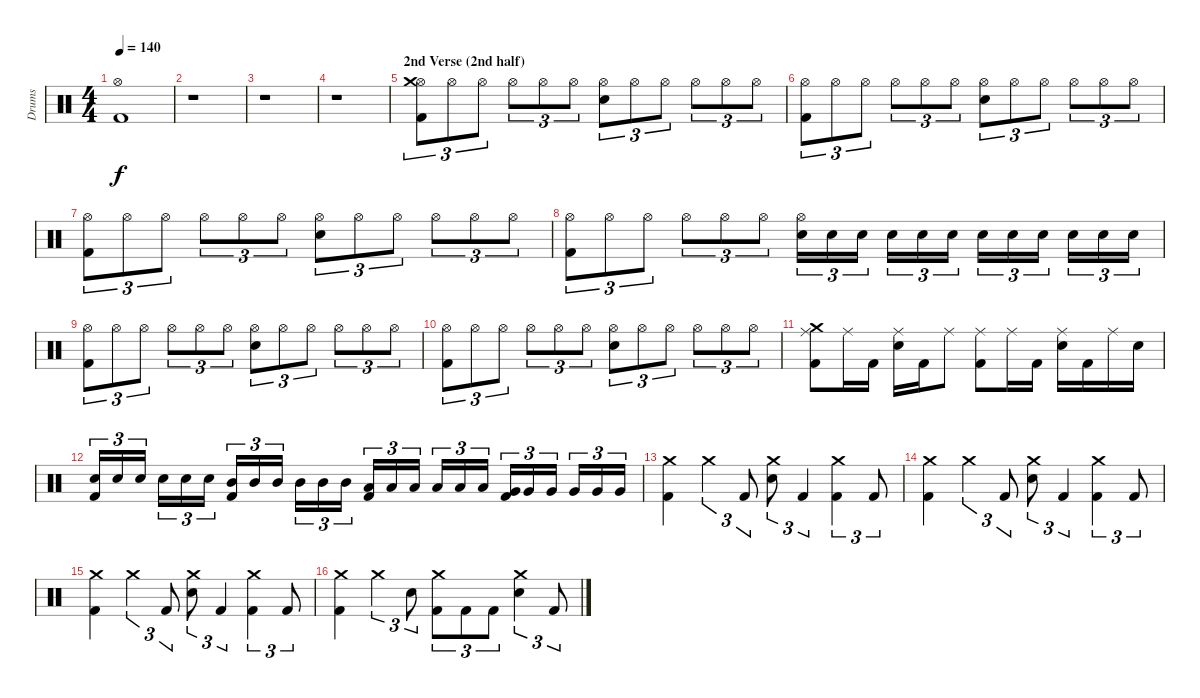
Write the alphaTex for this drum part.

\track ("Drums" "Drums") {instrument percussion}
\staff {score}
\articulation defaults
\ts (4 4)
\tempo 140
\clef neutral
\ks c
("Kick (hit) 2" "Hi-Hat (open)").1{dy f} |
r.1 |
r.1 |
r.1 |
\section ("" "2nd Verse (2nd half)")
("Kick (hit) 2" "Hi-Hat (open)" "Crash medium (hit)").8{tu (3 2)} "Hi-Hat (open)".8{tu (3 2)} "Hi-Hat (open)".8{tu (3 2)} "Hi-Hat (open)".8{tu (3 2)} "Hi-Hat (open)".8{tu (3 2)} "Hi-Hat (open)".8{tu (3 2)} ("Electric Snare (hit)" "Hi-Hat (open)").8{tu (3 2)} "Hi-Hat (open)".8{tu (3 2)} "Hi-Hat (open)".8{tu (3 2)} "Hi-Hat (open)".8{tu (3 2)} "Hi-Hat (open)".8{tu (3 2)} "Hi-Hat (open)".8{tu (3 2)} |
("Kick (hit) 2" "Hi-Hat (open)").8{tu (3 2)} "Hi-Hat (open)".8{tu (3 2)} "Hi-Hat (open)".8{tu (3 2)} "Hi-Hat (open)".8{tu (3 2)} "Hi-Hat (open)".8{tu (3 2)} "Hi-Hat (open)".8{tu (3 2)} ("Electric Snare (hit)" "Hi-Hat (open)").8{tu (3 2)} "Hi-Hat (open)".8{tu (3 2)} "Hi-Hat (open)".8{tu (3 2)} "Hi-Hat (open)".8{tu (3 2)} "Hi-Hat (open)".8{tu (3 2)} "Hi-Hat (open)".8{tu (3 2)} |
("Kick (hit) 2" "Hi-Hat (open)").8{tu (3 2)} "Hi-Hat (open)".8{tu (3 2)} "Hi-Hat (open)".8{tu (3 2)} "Hi-Hat (open)".8{tu (3 2)} "Hi-Hat (open)".8{tu (3 2)} "Hi-Hat (open)".8{tu (3 2)} ("Electric Snare (hit)" "Hi-Hat (open)").8{tu (3 2)} "Hi-Hat (open)".8{tu (3 2)} "Hi-Hat (open)".8{tu (3 2)} "Hi-Hat (open)".8{tu (3 2)} "Hi-Hat (open)".8{tu (3 2)} "Hi-Hat (open)".8{tu (3 2)} |
("Kick (hit) 2" "Hi-Hat (open)").8{tu (3 2)} "Hi-Hat (open)".8{tu (3 2)} "Hi-Hat (open)".8{tu (3 2)} "Hi-Hat (open)".8{tu (3 2)} "Hi-Hat (open)".8{tu (3 2)} "Hi-Hat (open)".8{tu (3 2)} ("Snare (hit) 2" "Hi-Hat (open)").16{tu (3 2)} "Snare (hit) 2".16{tu (3 2)} "Snare (hit) 2".16{tu (3 2)} "Snare (hit) 2".16{tu (3 2)} "Snare (hit) 2".16{tu (3 2)} "Snare (hit) 2".16{tu (3 2)} "Snare (hit) 2".16{tu (3 2)} "Snare (hit) 2".16{tu (3 2)} "Snare (hit) 2".16{tu (3 2)} "Snare (hit) 2".16{tu (3 2)} "Snare (hit) 2".16{tu (3 2)} "Snare (hit) 2".16{tu (3 2)} |
("Kick (hit) 2" "Hi-Hat (open)").8{tu (3 2)} "Hi-Hat (open)".8{tu (3 2)} "Hi-Hat (open)".8{tu (3 2)} "Hi-Hat (open)".8{tu (3 2)} "Hi-Hat (open)".8{tu (3 2)} "Hi-Hat (open)".8{tu (3 2)} ("Electric Snare (hit)" "Hi-Hat (open)").8{tu (3 2)} "Hi-Hat (open)".8{tu (3 2)} "Hi-Hat (open)".8{tu (3 2)} "Hi-Hat (open)".8{tu (3 2)} "Hi-Hat (open)".8{tu (3 2)} "Hi-Hat (open)".8{tu (3 2)} |
("Kick (hit) 2" "Hi-Hat (open)").8{tu (3 2)} "Hi-Hat (open)".8{tu (3 2)} "Hi-Hat (open)".8{tu (3 2)} "Hi-Hat (open)".8{tu (3 2)} "Hi-Hat (open)".8{tu (3 2)} "Hi-Hat (open)".8{tu (3 2)} ("Electric Snare (hit)" "Hi-Hat (open)").8{tu (3 2)} "Hi-Hat (open)".8{tu (3 2)} "Hi-Hat (open)".8{tu (3 2)} "Hi-Hat (open)".8{tu (3 2)} "Hi-Hat (open)".8{tu (3 2)} "Hi-Hat (open)".8{tu (3 2)} |
("Kick (hit) 2" "Ride (middle)" "Crash medium (hit)").8 "Ride (middle)".16 "Kick (hit) 2".16 ("Electric Snare (hit)" "Ride (middle)").16 "Kick (hit) 2".16 "Ride (middle)".8 ("Kick (hit) 2" "Ride (middle)").8 "Ride (middle)".16 "Kick (hit) 2".16 ("Electric Snare (hit)" "Ride (middle)").16 "Kick (hit) 2".16 "Ride (middle)".16 "Electric Snare (hit)".16 |
("Kick (hit) 2" "Snare (hit) 2").16{tu (3 2)} "Snare (hit) 2".16{tu (3 2)} "Snare (hit) 2".16{tu (3 2)} "Snare (hit) 2".16{tu (3 2)} "Snare (hit) 2".16{tu (3 2)} "Snare (hit) 2".16{tu (3 2)} ("Kick (hit) 2" "Mid Tom (hit)").16{tu (3 2)} "Mid Tom (hit)".16{tu (3 2)} "Mid Tom (hit)".16{tu (3 2)} "Mid Tom (hit)".16{tu (3 2)} "Mid Tom (hit)".16{tu (3 2)} "Mid Tom (hit)".16{tu (3 2)} ("Kick (hit) 2" "Low Tom (hit)").16{tu (3 2)} "Low Tom (hit)".16{tu (3 2)} "Low Tom (hit)".16{tu (3 2)} "Low Tom (hit)".16{tu (3 2)} "Low Tom (hit)".16{tu (3 2)} "Low Tom (hit)".16{tu (3 2)} ("Kick (hit) 2" "Very Low Tom (hit)").16{tu (3 2)} "Very Low Tom (hit)".16{tu (3 2)} "Very Low Tom (hit)".16{tu (3 2)} "Very Low Tom (hit)".16{tu (3 2)} "Very Low Tom (hit)".16{tu (3 2)} "Very Low Tom (hit)".16{tu (3 2)} |
("Kick (hit) 2" "Crash medium (hit)").4 "Crash medium (hit)".4{tu (3 2)} "Kick (hit) 2".8{tu (3 2)} ("Electric Snare (hit)" "Crash medium (hit)").8{tu (3 2)} "Kick (hit) 2".4{tu (3 2)} ("Kick (hit) 2" "Crash medium (hit)").4{tu (3 2)} "Kick (hit) 2".8{tu (3 2)} |
("Kick (hit) 2" "Crash medium (hit)").4 "Crash medium (hit)".4{tu (3 2)} "Kick (hit) 2".8{tu (3 2)} ("Electric Snare (hit)" "Crash medium (hit)").8{tu (3 2)} "Kick (hit) 2".4{tu (3 2)} ("Kick (hit) 2" "Crash medium (hit)").4{tu (3 2)} "Kick (hit) 2".8{tu (3 2)} |
("Kick (hit) 2" "Crash medium (hit)").4 "Crash medium (hit)".4{tu (3 2)} "Kick (hit) 2".8{tu (3 2)} ("Electric Snare (hit)" "Crash medium (hit)").8{tu (3 2)} "Kick (hit) 2".4{tu (3 2)} ("Kick (hit) 2" "Crash medium (hit)").4{tu (3 2)} "Kick (hit) 2".8{tu (3 2)} |
("Kick (hit) 2" "Crash medium (hit)").4 "Crash medium (hit)".4{tu (3 2)} "Electric Snare (hit)".8{tu (3 2)} ("Kick (hit) 2" "Crash medium (hit)").8{tu (3 2)} "Kick (hit) 2".8{tu (3 2)} "Kick (hit) 2".8{tu (3 2)} ("Electric Snare (hit)" "Crash medium (hit)").4{tu (3 2)} "Kick (hit) 2".8{tu (3 2)}
